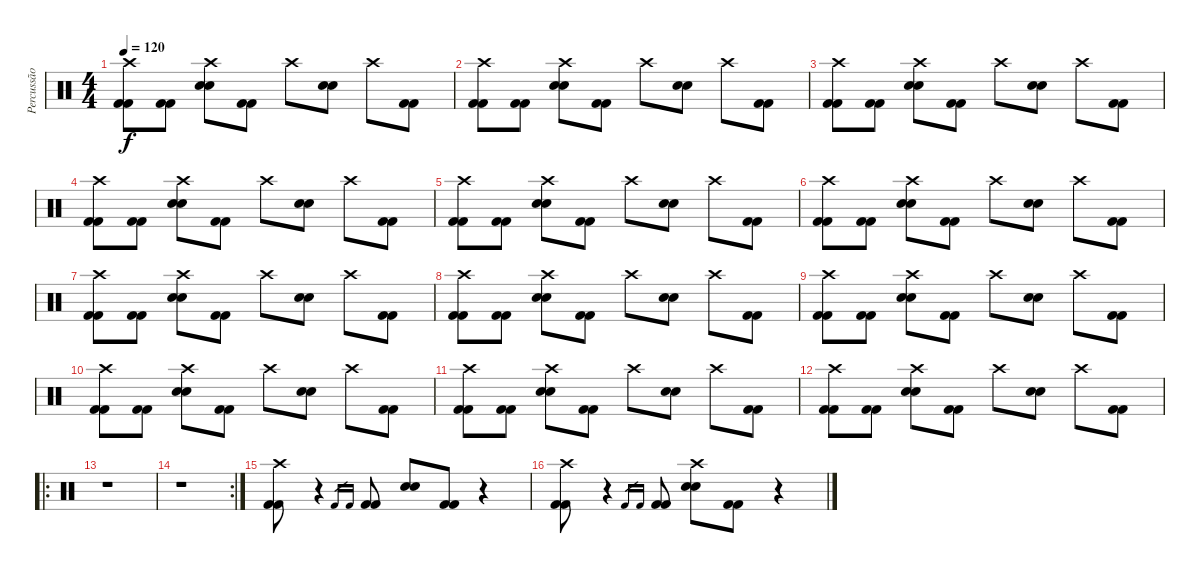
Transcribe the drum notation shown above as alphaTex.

\track ("Percussão" "Percussão") {instrument percussion}
\staff {score}
\articulation defaults
\ts (4 4)
\tempo 120
\clef neutral
\ks c
("Crash high (hit)" "Kick (hit) 2" "Kick (hit) 2").8{dy f} ("Kick (hit) 2" "Kick (hit) 2").8 ("Crash high (hit)" "Snare (hit) 2" "Snare (hit) 2").8 ("Kick (hit) 2" "Kick (hit) 2").8 "Crash high (hit)".8 ("Snare (hit) 2" "Snare (hit) 2").8 "Crash high (hit)".8 ("Kick (hit) 2" "Kick (hit) 2").8 |
("Crash high (hit)" "Kick (hit) 2" "Kick (hit) 2").8 ("Kick (hit) 2" "Kick (hit) 2").8 ("Crash high (hit)" "Snare (hit) 2" "Snare (hit) 2").8 ("Kick (hit) 2" "Kick (hit) 2").8 "Crash high (hit)".8 ("Snare (hit) 2" "Snare (hit) 2").8 "Crash high (hit)".8 ("Kick (hit) 2" "Kick (hit) 2").8 |
("Crash high (hit)" "Kick (hit) 2" "Kick (hit) 2").8 ("Kick (hit) 2" "Kick (hit) 2").8 ("Crash high (hit)" "Snare (hit) 2" "Snare (hit) 2").8 ("Kick (hit) 2" "Kick (hit) 2").8 "Crash high (hit)".8 ("Snare (hit) 2" "Snare (hit) 2").8 "Crash high (hit)".8 ("Kick (hit) 2" "Kick (hit) 2").8 |
("Crash high (hit)" "Kick (hit) 2" "Kick (hit) 2").8 ("Kick (hit) 2" "Kick (hit) 2").8 ("Crash high (hit)" "Snare (hit) 2" "Snare (hit) 2").8 ("Kick (hit) 2" "Kick (hit) 2").8 "Crash high (hit)".8 ("Snare (hit) 2" "Snare (hit) 2").8 "Crash high (hit)".8 ("Kick (hit) 2" "Kick (hit) 2").8 |
("Crash high (hit)" "Kick (hit) 2" "Kick (hit) 2").8 ("Kick (hit) 2" "Kick (hit) 2").8 ("Crash high (hit)" "Snare (hit) 2" "Snare (hit) 2").8 ("Kick (hit) 2" "Kick (hit) 2").8 "Crash high (hit)".8 ("Snare (hit) 2" "Snare (hit) 2").8 "Crash high (hit)".8 ("Kick (hit) 2" "Kick (hit) 2").8 |
("Crash high (hit)" "Kick (hit) 2" "Kick (hit) 2").8 ("Kick (hit) 2" "Kick (hit) 2").8 ("Crash high (hit)" "Snare (hit) 2" "Snare (hit) 2").8 ("Kick (hit) 2" "Kick (hit) 2").8 "Crash high (hit)".8 ("Snare (hit) 2" "Snare (hit) 2").8 "Crash high (hit)".8 ("Kick (hit) 2" "Kick (hit) 2").8 |
("Crash high (hit)" "Kick (hit) 2" "Kick (hit) 2").8 ("Kick (hit) 2" "Kick (hit) 2").8 ("Crash high (hit)" "Snare (hit) 2" "Snare (hit) 2").8 ("Kick (hit) 2" "Kick (hit) 2").8 "Crash high (hit)".8 ("Snare (hit) 2" "Snare (hit) 2").8 "Crash high (hit)".8 ("Kick (hit) 2" "Kick (hit) 2").8 |
("Crash high (hit)" "Kick (hit) 2" "Kick (hit) 2").8 ("Kick (hit) 2" "Kick (hit) 2").8 ("Crash high (hit)" "Snare (hit) 2" "Snare (hit) 2").8 ("Kick (hit) 2" "Kick (hit) 2").8 "Crash high (hit)".8 ("Snare (hit) 2" "Snare (hit) 2").8 "Crash high (hit)".8 ("Kick (hit) 2" "Kick (hit) 2").8 |
("Crash high (hit)" "Kick (hit) 2" "Kick (hit) 2").8 ("Kick (hit) 2" "Kick (hit) 2").8 ("Crash high (hit)" "Snare (hit) 2" "Snare (hit) 2").8 ("Kick (hit) 2" "Kick (hit) 2").8 "Crash high (hit)".8 ("Snare (hit) 2" "Snare (hit) 2").8 "Crash high (hit)".8 ("Kick (hit) 2" "Kick (hit) 2").8 |
("Crash high (hit)" "Kick (hit) 2" "Kick (hit) 2").8 ("Kick (hit) 2" "Kick (hit) 2").8 ("Crash high (hit)" "Snare (hit) 2" "Snare (hit) 2").8 ("Kick (hit) 2" "Kick (hit) 2").8 "Crash high (hit)".8 ("Snare (hit) 2" "Snare (hit) 2").8 "Crash high (hit)".8 ("Kick (hit) 2" "Kick (hit) 2").8 |
("Crash high (hit)" "Kick (hit) 2" "Kick (hit) 2").8 ("Kick (hit) 2" "Kick (hit) 2").8 ("Crash high (hit)" "Snare (hit) 2" "Snare (hit) 2").8 ("Kick (hit) 2" "Kick (hit) 2").8 "Crash high (hit)".8 ("Snare (hit) 2" "Snare (hit) 2").8 "Crash high (hit)".8 ("Kick (hit) 2" "Kick (hit) 2").8 |
("Crash high (hit)" "Kick (hit) 2" "Kick (hit) 2").8 ("Kick (hit) 2" "Kick (hit) 2").8 ("Crash high (hit)" "Snare (hit) 2" "Snare (hit) 2").8 ("Kick (hit) 2" "Kick (hit) 2").8 "Crash high (hit)".8 ("Snare (hit) 2" "Snare (hit) 2").8 "Crash high (hit)".8 ("Kick (hit) 2" "Kick (hit) 2").8 |
\ro
r.1 |
\rc 2
r.1 |
("Crash high (hit)" "Kick (hit) 2" "Kick (hit) 2").8 r.4 "Kick (hit) 2".16{gr} "Kick (hit) 2".16{gr} ("Kick (hit) 2" "Kick (hit) 2").8 ("Snare (hit) 2" "Snare (hit) 2").8 ("Kick (hit) 2" "Kick (hit) 2").8 r.4 |
("Crash high (hit)" "Kick (hit) 2" "Kick (hit) 2").8 r.4 "Kick (hit) 2".16{gr} "Kick (hit) 2".16{gr} ("Kick (hit) 2" "Kick (hit) 2").8 ("Crash high (hit)" "Snare (hit) 2" "Snare (hit) 2").8 ("Kick (hit) 2" "Kick (hit) 2").8 r.4
